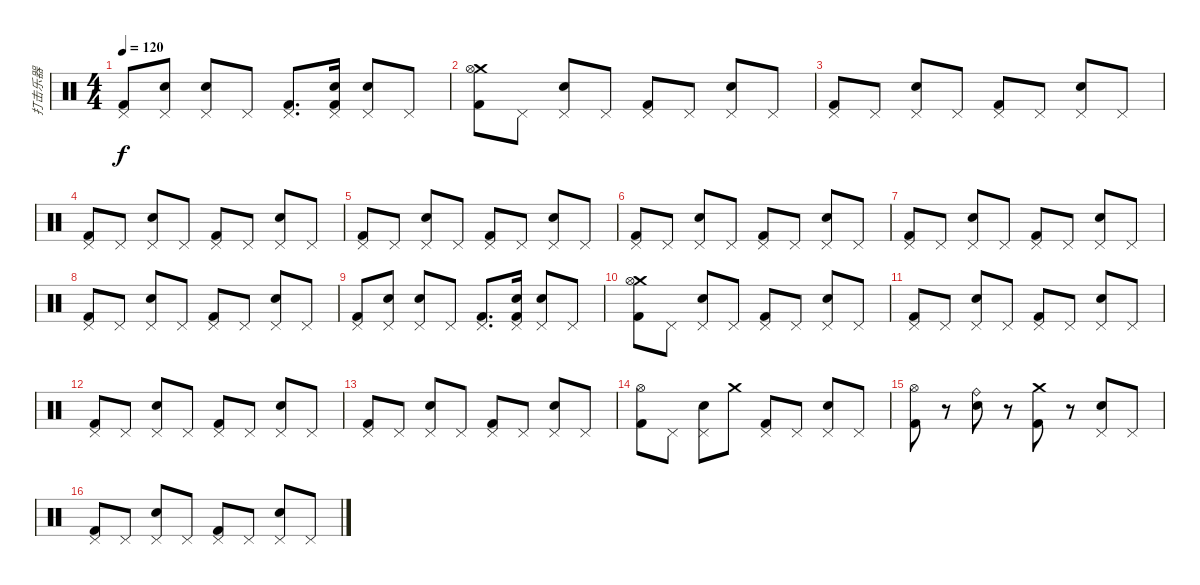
\track ("打击乐器" "打击乐器") {instrument percussion}
\staff {score}
\articulation defaults
\ts (4 4)
\tempo 120
\clef neutral
\ks c
("Pedal Hi-Hat (hit)" "Kick (hit) 2").8{dy f} ("Pedal Hi-Hat (hit)" "Electric Snare (hit)").8 ("Pedal Hi-Hat (hit)" "Electric Snare (hit)").8 "Pedal Hi-Hat (hit)".8 ("Pedal Hi-Hat (hit)" "Kick (hit) 2").8{d} ("Pedal Hi-Hat (hit)" "Electric Snare (hit)" "Kick (hit) 2").16 ("Pedal Hi-Hat (hit)" "Electric Snare (hit)").8 "Pedal Hi-Hat (hit)".8 |
("Crash medium (hit)" "Hi-Hat (open)" "Kick (hit) 2").8 "Pedal Hi-Hat (hit)".8 ("Pedal Hi-Hat (hit)" "Electric Snare (hit)").8 "Pedal Hi-Hat (hit)".8 ("Pedal Hi-Hat (hit)" "Kick (hit) 2").8 "Pedal Hi-Hat (hit)".8 ("Pedal Hi-Hat (hit)" "Electric Snare (hit)").8 "Pedal Hi-Hat (hit)".8 |
("Pedal Hi-Hat (hit)" "Kick (hit) 2").8 "Pedal Hi-Hat (hit)".8 ("Pedal Hi-Hat (hit)" "Electric Snare (hit)").8 "Pedal Hi-Hat (hit)".8 ("Pedal Hi-Hat (hit)" "Kick (hit) 2").8 "Pedal Hi-Hat (hit)".8 ("Pedal Hi-Hat (hit)" "Electric Snare (hit)").8 "Pedal Hi-Hat (hit)".8 |
("Pedal Hi-Hat (hit)" "Kick (hit) 2").8 "Pedal Hi-Hat (hit)".8 ("Pedal Hi-Hat (hit)" "Electric Snare (hit)").8 "Pedal Hi-Hat (hit)".8 ("Pedal Hi-Hat (hit)" "Kick (hit) 2").8 "Pedal Hi-Hat (hit)".8 ("Pedal Hi-Hat (hit)" "Electric Snare (hit)").8 "Pedal Hi-Hat (hit)".8 |
("Pedal Hi-Hat (hit)" "Kick (hit) 2").8 "Pedal Hi-Hat (hit)".8 ("Pedal Hi-Hat (hit)" "Electric Snare (hit)").8 "Pedal Hi-Hat (hit)".8 ("Pedal Hi-Hat (hit)" "Kick (hit) 2").8 "Pedal Hi-Hat (hit)".8 ("Pedal Hi-Hat (hit)" "Electric Snare (hit)").8 "Pedal Hi-Hat (hit)".8 |
("Pedal Hi-Hat (hit)" "Kick (hit) 2").8 "Pedal Hi-Hat (hit)".8 ("Pedal Hi-Hat (hit)" "Electric Snare (hit)").8 "Pedal Hi-Hat (hit)".8 ("Pedal Hi-Hat (hit)" "Kick (hit) 2").8 "Pedal Hi-Hat (hit)".8 ("Pedal Hi-Hat (hit)" "Electric Snare (hit)").8 "Pedal Hi-Hat (hit)".8 |
("Pedal Hi-Hat (hit)" "Kick (hit) 2").8 "Pedal Hi-Hat (hit)".8 ("Pedal Hi-Hat (hit)" "Electric Snare (hit)").8 "Pedal Hi-Hat (hit)".8 ("Pedal Hi-Hat (hit)" "Kick (hit) 2").8 "Pedal Hi-Hat (hit)".8 ("Pedal Hi-Hat (hit)" "Electric Snare (hit)").8 "Pedal Hi-Hat (hit)".8 |
("Pedal Hi-Hat (hit)" "Kick (hit) 2").8 "Pedal Hi-Hat (hit)".8 ("Pedal Hi-Hat (hit)" "Electric Snare (hit)").8 "Pedal Hi-Hat (hit)".8 ("Pedal Hi-Hat (hit)" "Kick (hit) 2").8 "Pedal Hi-Hat (hit)".8 ("Pedal Hi-Hat (hit)" "Electric Snare (hit)").8 "Pedal Hi-Hat (hit)".8 |
("Pedal Hi-Hat (hit)" "Kick (hit) 2").8 ("Pedal Hi-Hat (hit)" "Electric Snare (hit)").8 ("Pedal Hi-Hat (hit)" "Electric Snare (hit)").8 "Pedal Hi-Hat (hit)".8 ("Pedal Hi-Hat (hit)" "Kick (hit) 2").8{d} ("Pedal Hi-Hat (hit)" "Electric Snare (hit)" "Kick (hit) 2").16 ("Pedal Hi-Hat (hit)" "Electric Snare (hit)").8 "Pedal Hi-Hat (hit)".8 |
("Crash medium (hit)" "Hi-Hat (open)" "Kick (hit) 2").8 "Pedal Hi-Hat (hit)".8 ("Pedal Hi-Hat (hit)" "Electric Snare (hit)").8 "Pedal Hi-Hat (hit)".8 ("Pedal Hi-Hat (hit)" "Kick (hit) 2").8 "Pedal Hi-Hat (hit)".8 ("Pedal Hi-Hat (hit)" "Electric Snare (hit)").8 "Pedal Hi-Hat (hit)".8 |
("Pedal Hi-Hat (hit)" "Kick (hit) 2").8 "Pedal Hi-Hat (hit)".8 ("Pedal Hi-Hat (hit)" "Electric Snare (hit)").8 "Pedal Hi-Hat (hit)".8 ("Pedal Hi-Hat (hit)" "Kick (hit) 2").8 "Pedal Hi-Hat (hit)".8 ("Pedal Hi-Hat (hit)" "Electric Snare (hit)").8 "Pedal Hi-Hat (hit)".8 |
("Pedal Hi-Hat (hit)" "Kick (hit) 2").8 "Pedal Hi-Hat (hit)".8 ("Pedal Hi-Hat (hit)" "Electric Snare (hit)").8 "Pedal Hi-Hat (hit)".8 ("Pedal Hi-Hat (hit)" "Kick (hit) 2").8 "Pedal Hi-Hat (hit)".8 ("Pedal Hi-Hat (hit)" "Electric Snare (hit)").8 "Pedal Hi-Hat (hit)".8 |
("Pedal Hi-Hat (hit)" "Kick (hit) 2").8 "Pedal Hi-Hat (hit)".8 ("Pedal Hi-Hat (hit)" "Electric Snare (hit)").8 "Pedal Hi-Hat (hit)".8 ("Pedal Hi-Hat (hit)" "Kick (hit) 2").8 "Pedal Hi-Hat (hit)".8 ("Pedal Hi-Hat (hit)" "Electric Snare (hit)").8 "Pedal Hi-Hat (hit)".8 |
("Hi-Hat (open)" "Kick (hit) 2").8 "Pedal Hi-Hat (hit)".8 ("Pedal Hi-Hat (hit)" "Electric Snare (hit)").8 "Crash medium (hit)".8 ("Pedal Hi-Hat (hit)" "Kick (hit) 2").8 "Pedal Hi-Hat (hit)".8 ("Pedal Hi-Hat (hit)" "Electric Snare (hit)").8 "Pedal Hi-Hat (hit)".8 |
("Hi-Hat (open)" "Kick (hit) 2").8 r.8 ("Ride (bell)" "Electric Snare (hit)").8 r.8 ("Crash medium (hit)" "Kick (hit) 2").8 r.8 ("Pedal Hi-Hat (hit)" "Electric Snare (hit)").8 "Pedal Hi-Hat (hit)".8 |
("Pedal Hi-Hat (hit)" "Kick (hit) 2").8 "Pedal Hi-Hat (hit)".8 ("Pedal Hi-Hat (hit)" "Electric Snare (hit)").8 "Pedal Hi-Hat (hit)".8 ("Pedal Hi-Hat (hit)" "Kick (hit) 2").8 "Pedal Hi-Hat (hit)".8 ("Pedal Hi-Hat (hit)" "Electric Snare (hit)").8 "Pedal Hi-Hat (hit)".8
